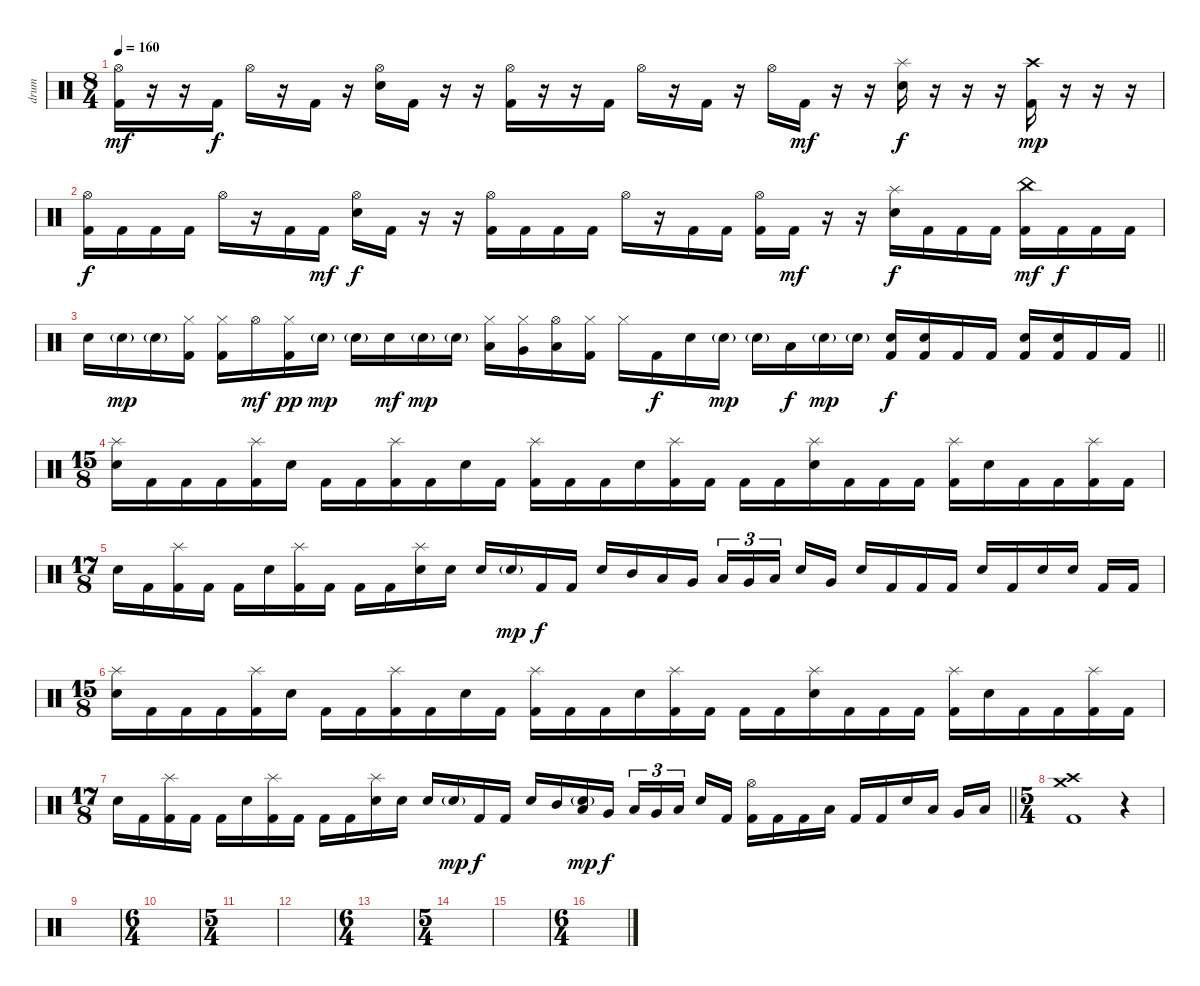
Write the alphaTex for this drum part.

\track ("drum" "drum") {instrument percussion}
\staff {score}
\articulation defaults
\ts (8 4)
\tempo 160
\clef neutral
\ks c
("Hi-Hat (open)" "Kick (hit) 2").16{dy mf} r.16 r.16 "Kick (hit) 2".16{dy f} "Hi-Hat (open)".16 r.16 "Kick (hit) 2".16 r.16 ("Hi-Hat (open)" "Electric Snare (hit)").16 "Kick (hit) 2".16 r.16 r.16 ("Hi-Hat (open)" "Kick (hit) 2").16 r.16 r.16 "Kick (hit) 2".16 "Hi-Hat (open)".16 r.16 "Kick (hit) 2".16 r.16 "Hi-Hat (open)".16 "Kick (hit) 2".16{dy mf} r.16 r.16 ("Splash (hit)" "Electric Snare (hit)").16{dy f} r.16 r.16 r.16 ("Crash high (hit)" "Kick (hit) 2").16{dy mp} r.16 r.16 r.16 |
("Hi-Hat (open)" "Kick (hit) 2").16{dy f} "Kick (hit) 2".16 "Kick (hit) 2".16 "Kick (hit) 2".16 "Hi-Hat (open)".16 r.16 "Kick (hit) 2".16 "Kick (hit) 2".16{dy mf} ("Hi-Hat (open)" "Electric Snare (hit)").16{dy f} "Kick (hit) 2".16 r.16 r.16 ("Hi-Hat (open)" "Kick (hit) 2").16 "Kick (hit) 2".16 "Kick (hit) 2".16 "Kick (hit) 2".16 "Hi-Hat (open)".16 r.16 "Kick (hit) 2".16 "Kick (hit) 2".16 ("Hi-Hat (open)" "Kick (hit) 2").16 "Kick (hit) 2".16{dy mf} r.16 r.16 ("Splash (hit)" "Electric Snare (hit)").16{dy f} "Kick (hit) 2".16 "Kick (hit) 2".16 "Kick (hit) 2".16 ("China (hit)" "Kick (hit) 2").16{dy mf} "Kick (hit) 2".16{dy f} "Kick (hit) 2".16 "Kick (hit) 2".16 |
\barLineRight lightlight "Electric Snare (hit)".16 "Electric Snare (hit)"{g}.16{dy mp} "Electric Snare (hit)"{g}.16
("Hi-Hat (closed)" "Kick (hit) 2").16 ("Hi-Hat (closed)" "Kick (hit) 2").16 "Hi-Hat (open)".16{dy mf} ("Hi-Hat (closed)" "Kick (hit) 2").16{dy pp} "Electric Snare (hit)"{g}.16{dy mp} "Electric Snare (hit)"{g}.16 "Electric Snare (hit)".16{dy mf} "Electric Snare (hit)"{g}.16{dy mp} "Electric Snare (hit)"{g}.16 ("Hi-Hat (closed)" "Low Tom (hit)").16 ("Hi-Hat (closed)" "Very Low Tom (hit)").16 ("Hi-Hat (open)" "Low Floor Tom (hit)").16 ("Hi-Hat (closed)" "Kick (hit) 2").16 "Hi-Hat (closed)".16 "Kick (hit) 2".16{dy f} "Electric Snare (hit)".16 "Electric Snare (hit)"{g}.16{dy mp} "Electric Snare (hit)"{g}.16 "Low Tom (hit)".16{dy f} "Electric Snare (hit)"{g}.16{dy mp} "Electric Snare (hit)"{g}.16 ("Electric Snare (hit)" "Kick (hit) 2").16{dy f} ("Electric Snare (hit)" "Kick (hit) 2").16 "Kick (hit) 2".16 "Kick (hit) 2".16 ("Electric Snare (hit)" "Kick (hit) 2").16 ("Electric Snare (hit)" "Kick (hit) 2").16 "Kick (hit) 2".16 "Kick (hit) 2".16 |
\ts (15 8)
\section ("" "")
("Splash (hit)" "Electric Snare (hit)").16 "Kick (hit) 2".16 "Kick (hit) 2".16 "Kick (hit) 2".16 ("Splash (hit)" "Kick (hit) 2").16 "Electric Snare (hit)".16 "Kick (hit) 2".16 "Kick (hit) 2".16 ("Splash (hit)" "Kick (hit) 2").16 "Kick (hit) 2".16 "Electric Snare (hit)".16 "Kick (hit) 2".16 ("Splash (hit)" "Kick (hit) 2").16 "Kick (hit) 2".16 "Kick (hit) 2".16 "Electric Snare (hit)".16 ("Splash (hit)" "Kick (hit) 2").16 "Kick (hit) 2".16 "Kick (hit) 2".16 "Kick (hit) 2".16 ("Splash (hit)" "Electric Snare (hit)").16 "Kick (hit) 2".16 "Kick (hit) 2".16 "Kick (hit) 2".16 ("Splash (hit)" "Kick (hit) 2").16 "Electric Snare (hit)".16 "Kick (hit) 2".16 "Kick (hit) 2".16 ("Splash (hit)" "Kick (hit) 2").16 "Kick (hit) 2".16 |
\ts (17 8)
"Electric Snare (hit)".16 "Kick (hit) 2".16 ("Splash (hit)" "Kick (hit) 2").16 "Kick (hit) 2".16 "Kick (hit) 2".16 "Electric Snare (hit)".16 ("Splash (hit)" "Kick (hit) 2").16 "Kick (hit) 2".16 "Kick (hit) 2".16 "Kick (hit) 2".16 ("Splash (hit)" "Electric Snare (hit)").16 "Electric Snare (hit)".16 "Electric Snare (hit)".16 "Electric Snare (hit)"{g}.16{dy mp} "Kick (hit) 2".16{dy f} "Kick (hit) 2".16 "Electric Snare (hit)".16 "Mid Tom (hit)".16 "Low Tom (hit)".16 "Very Low Tom (hit)".16 "Low Floor Tom (hit)".16{tu (3 2)} "Very Low Tom (hit)".16{tu (3 2)} "Low Tom (hit)".16{tu (3 2)} "Electric Snare (hit)".16 "Very Low Tom (hit)".16 "Electric Snare (hit)".16 "Kick (hit) 2".16 "Kick (hit) 2".16 "Kick (hit) 2".16 "Electric Snare (hit)".16 "Kick (hit) 2".16 "Electric Snare (hit)".16 "Electric Snare (hit)".16 "Kick (hit) 2".16 "Kick (hit) 2".16 |
\ts (15 8)
("Splash (hit)" "Electric Snare (hit)").16 "Kick (hit) 2".16 "Kick (hit) 2".16 "Kick (hit) 2".16 ("Splash (hit)" "Kick (hit) 2").16 "Electric Snare (hit)".16 "Kick (hit) 2".16 "Kick (hit) 2".16 ("Splash (hit)" "Kick (hit) 2").16 "Kick (hit) 2".16 "Electric Snare (hit)".16 "Kick (hit) 2".16 ("Splash (hit)" "Kick (hit) 2").16 "Kick (hit) 2".16 "Kick (hit) 2".16 "Electric Snare (hit)".16 ("Splash (hit)" "Kick (hit) 2").16 "Kick (hit) 2".16 "Kick (hit) 2".16 "Kick (hit) 2".16 ("Splash (hit)" "Electric Snare (hit)").16 "Kick (hit) 2".16 "Kick (hit) 2".16 "Kick (hit) 2".16 ("Splash (hit)" "Kick (hit) 2").16 "Electric Snare (hit)".16 "Kick (hit) 2".16 "Kick (hit) 2".16 ("Splash (hit)" "Kick (hit) 2").16 "Kick (hit) 2".16 |
\ts (17 8)
\barLineRight lightlight "Electric Snare (hit)".16 "Kick (hit) 2".16
("Splash (hit)" "Kick (hit) 2").16 "Kick (hit) 2".16 "Kick (hit) 2".16 "Electric Snare (hit)".16 ("Splash (hit)" "Kick (hit) 2").16 "Kick (hit) 2".16 "Kick (hit) 2".16 "Kick (hit) 2".16 ("Splash (hit)" "Electric Snare (hit)").16 "Electric Snare (hit)".16 "Electric Snare (hit)".16 "Electric Snare (hit)"{g}.16{dy mp} "Kick (hit) 2".16{dy f} "Kick (hit) 2".16 "Electric Snare (hit)".16 "Mid Tom (hit)".16 ("Low Tom (hit)" "Electric Snare (hit)"{g}).16{dy mp} "Very Low Tom (hit)".16{dy f} "Low Floor Tom (hit)".16{tu (3 2)} "Very Low Tom (hit)".16{tu (3 2)} "Low Tom (hit)".16{tu (3 2)} "Electric Snare (hit)".16 "Kick (hit) 2".16 ("Hi-Hat (open)" "Kick (hit) 2").16 "Kick (hit) 2".16 "Kick (hit) 2".16 "Low Tom (hit)".16 "Kick (hit) 2".16 "Kick (hit) 2".16 "Electric Snare (hit)".16 "Low Tom (hit)".16 "Very Low Tom (hit)".16 "Low Floor Tom (hit)".16 |
\ts (5 4)
\section ("" "")
("Crash medium (hit)" "Crash high (hit)" "Kick (hit) 2").1 r.4 |
|
\ts (6 4)
|
\ts (5 4)
|
|
\ts (6 4)
|
\ts (5 4)
|
|
\ts (6 4)
